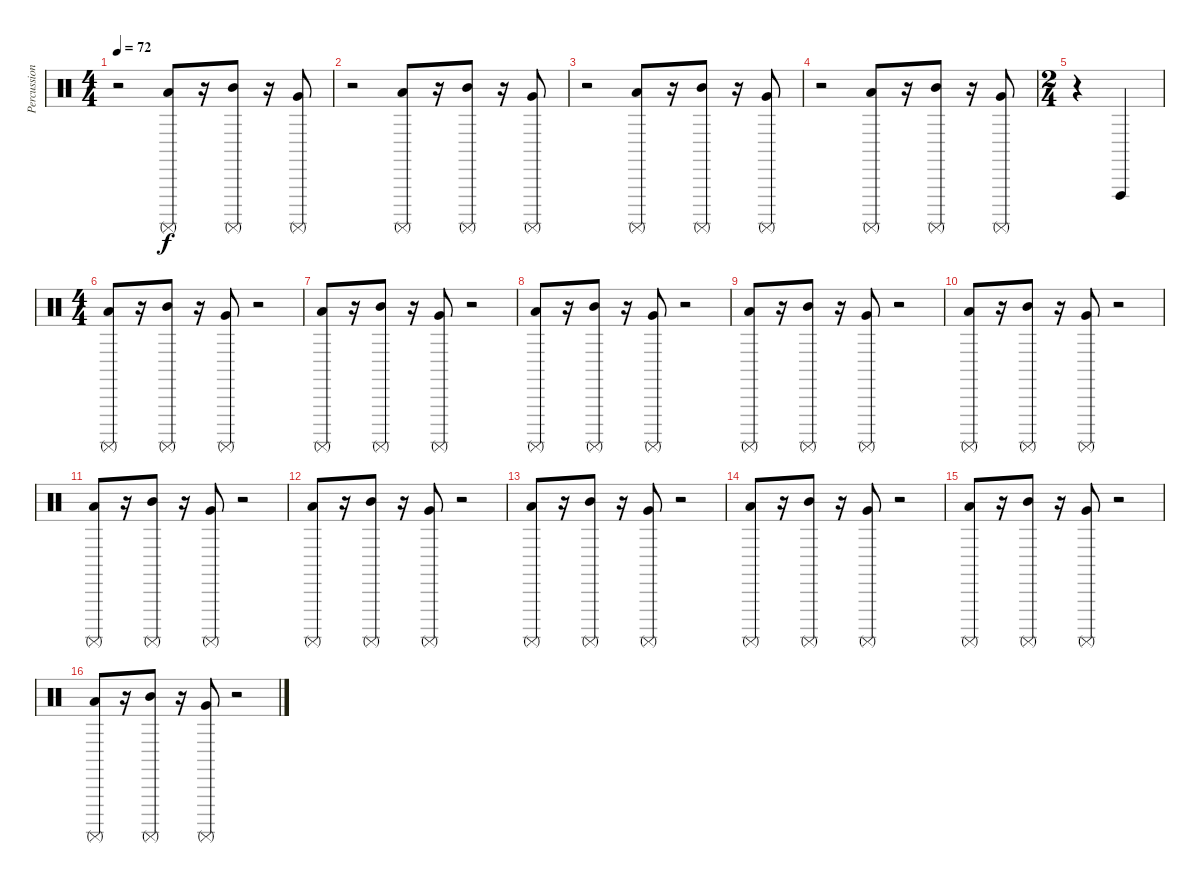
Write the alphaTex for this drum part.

\track ("Percussion" "Percussion") {instrument percussion}
\staff {score}
\articulation defaults
\ts (4 4)
\tempo 72
\clef neutral
\ks c
r.2{dy f} ("Low Tom (hit)" "Surdo (mute)").8 r.16 ("Mid Tom (hit)" "Surdo (mute)").8 r.16 ("Very Low Tom (hit)" "Surdo (mute)").8 |
r.2 ("Low Tom (hit)" "Surdo (mute)").8 r.16 ("Mid Tom (hit)" "Surdo (mute)").8 r.16 ("Very Low Tom (hit)" "Surdo (mute)").8 |
r.2 ("Low Tom (hit)" "Surdo (mute)").8 r.16 ("Mid Tom (hit)" "Surdo (mute)").8 r.16 ("Very Low Tom (hit)" "Surdo (mute)").8 |
r.2 ("Low Tom (hit)" "Surdo (mute)").8 r.16 ("Mid Tom (hit)" "Surdo (mute)").8 r.16 ("Very Low Tom (hit)" "Surdo (mute)").8 |
\ts (2 4)
r.4 "Vibraslap (hit)".4 |
\ts (4 4)
("Low Tom (hit)" "Surdo (mute)").8 r.16 ("Mid Tom (hit)" "Surdo (mute)").8 r.16 ("Very Low Tom (hit)" "Surdo (mute)").8 r.2 |
("Low Tom (hit)" "Surdo (mute)").8 r.16 ("Mid Tom (hit)" "Surdo (mute)").8 r.16 ("Very Low Tom (hit)" "Surdo (mute)").8 r.2 |
("Low Tom (hit)" "Surdo (mute)").8 r.16 ("Mid Tom (hit)" "Surdo (mute)").8 r.16 ("Very Low Tom (hit)" "Surdo (mute)").8 r.2 |
("Low Tom (hit)" "Surdo (mute)").8 r.16 ("Mid Tom (hit)" "Surdo (mute)").8 r.16 ("Very Low Tom (hit)" "Surdo (mute)").8 r.2 |
("Low Tom (hit)" "Surdo (mute)").8 r.16 ("Mid Tom (hit)" "Surdo (mute)").8 r.16 ("Very Low Tom (hit)" "Surdo (mute)").8 r.2 |
("Low Tom (hit)" "Surdo (mute)").8 r.16 ("Mid Tom (hit)" "Surdo (mute)").8 r.16 ("Very Low Tom (hit)" "Surdo (mute)").8 r.2 |
("Low Tom (hit)" "Surdo (mute)").8 r.16 ("Mid Tom (hit)" "Surdo (mute)").8 r.16 ("Very Low Tom (hit)" "Surdo (mute)").8 r.2 |
("Low Tom (hit)" "Surdo (mute)").8 r.16 ("Mid Tom (hit)" "Surdo (mute)").8 r.16 ("Very Low Tom (hit)" "Surdo (mute)").8 r.2 |
("Low Tom (hit)" "Surdo (mute)").8 r.16 ("Mid Tom (hit)" "Surdo (mute)").8 r.16 ("Very Low Tom (hit)" "Surdo (mute)").8 r.2 |
("Low Tom (hit)" "Surdo (mute)").8 r.16 ("Mid Tom (hit)" "Surdo (mute)").8 r.16 ("Very Low Tom (hit)" "Surdo (mute)").8 r.2 |
("Low Tom (hit)" "Surdo (mute)").8 r.16 ("Mid Tom (hit)" "Surdo (mute)").8 r.16 ("Very Low Tom (hit)" "Surdo (mute)").8 r.2
